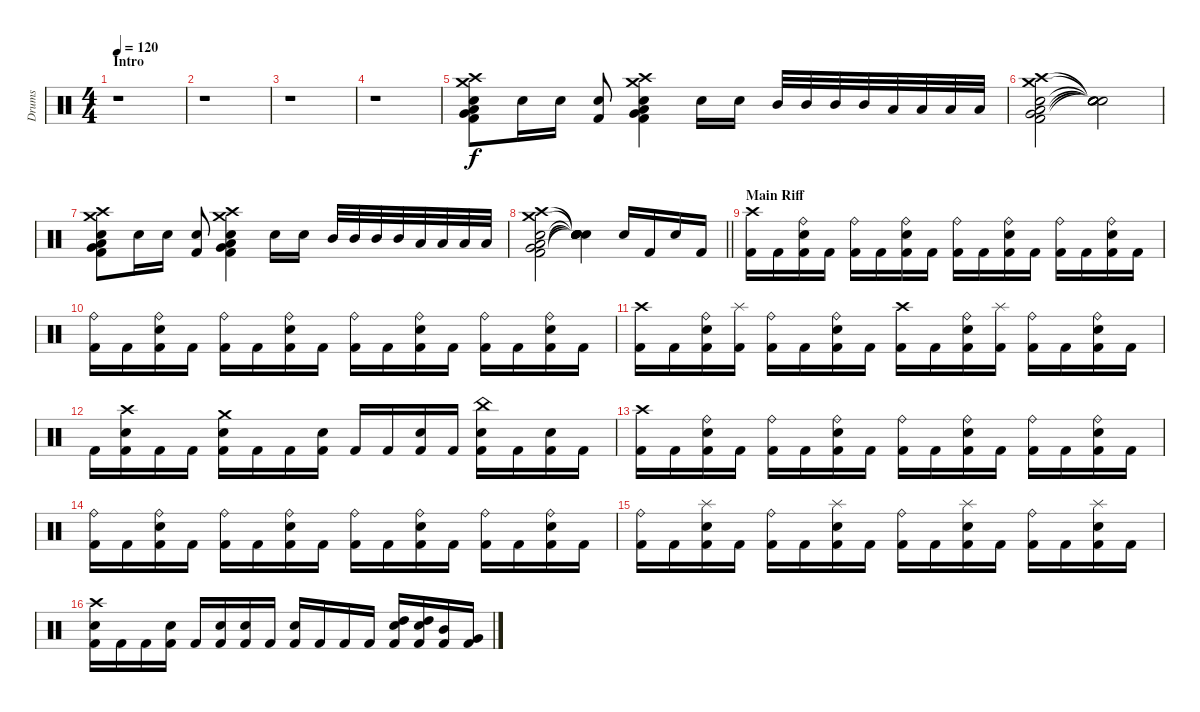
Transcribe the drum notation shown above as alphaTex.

\track ("Drums" "Drums") {instrument percussion}
\staff {score}
\articulation defaults
\ts (4 4)
\section ("" "Intro")
\tempo 120
\clef neutral
\ks c
r.1{dy f} |
r.1 |
r.1 |
r.1 |
("Crash high (hit)" "Crash medium (hit)" "Kick (hit) 2" "Low Floor Tom (hit)" "Very Low Tom (hit)" "Snare (hit) 2").8 "Snare (hit) 2".16 "Snare (hit) 2".16 ("Snare (hit) 2" "Kick (hit) 2").8 ("Crash high (hit)" "Crash medium (hit)" "Kick (hit) 2" "Low Floor Tom (hit)" "Very Low Tom (hit)" "Snare (hit) 2").4 "Snare (hit) 2".16 "Snare (hit) 2".16 "Mid Tom (hit)".32 "Mid Tom (hit)".32 "Mid Tom (hit)".32 "Mid Tom (hit)".32 "Low Tom (hit)".32 "Low Tom (hit)".32 "Low Tom (hit)".32 "Low Tom (hit)".32 |
("Crash high (hit)" "Crash medium (hit)" "Kick (hit) 2" "Low Floor Tom (hit)" "Very Low Tom (hit)" "Snare (hit) 2").2 ("Snare (hit)"{t} "Snare (hit)"{t} "Snare (hit)"{t} "Snare (hit)"{t} "Snare (hit)"{t} "Snare (hit)"{t}).2 |
("Crash high (hit)" "Crash medium (hit)" "Kick (hit) 2" "Low Floor Tom (hit)" "Very Low Tom (hit)" "Snare (hit) 2").8 "Snare (hit) 2".16 "Snare (hit) 2".16 ("Snare (hit) 2" "Kick (hit) 2").8 ("Crash high (hit)" "Crash medium (hit)" "Kick (hit) 2" "Low Floor Tom (hit)" "Very Low Tom (hit)" "Snare (hit) 2").4 "Snare (hit) 2".16 "Snare (hit) 2".16 "Mid Tom (hit)".32 "Mid Tom (hit)".32 "Mid Tom (hit)".32 "Mid Tom (hit)".32 "Low Tom (hit)".32 "Low Tom (hit)".32 "Low Tom (hit)".32 "Low Tom (hit)".32 |
\barLineRight lightlight
("Crash high (hit)" "Crash medium (hit)" "Kick (hit) 2" "Low Floor Tom (hit)" "Very Low Tom (hit)" "Snare (hit) 2").2 ("Snare (hit)"{t} "Snare (hit)"{t} "Snare (hit)"{t} "Snare (hit)"{t} "Snare (hit)"{t} "Snare (hit)"{t}).4 "Snare (hit) 2".16 "Kick (hit) 2".16 "Snare (hit) 2".16 "Kick (hit) 2".16 |
\section ("" "Main Riff")
("Crash high (hit)" "Kick (hit) 2").16 "Kick (hit) 2".16 ("Ride (bell)" "Snare (hit) 2" "Kick (hit) 2").16 "Kick (hit) 2".16 ("Ride (bell)" "Kick (hit) 2").16 "Kick (hit) 2".16 ("Ride (bell)" "Snare (hit) 2" "Kick (hit) 2").16 "Kick (hit) 2".16 ("Ride (bell)" "Kick (hit) 2").16 "Kick (hit) 2".16 ("Ride (bell)" "Snare (hit) 2" "Kick (hit) 2").16 "Kick (hit) 2".16 ("Ride (bell)" "Kick (hit) 2").16 "Kick (hit) 2".16 ("Ride (bell)" "Snare (hit) 2" "Kick (hit) 2").16 "Kick (hit) 2".16 |
("Ride (bell)" "Kick (hit) 2").16 "Kick (hit) 2".16 ("Ride (bell)" "Snare (hit) 2" "Kick (hit) 2").16 "Kick (hit) 2".16 ("Ride (bell)" "Kick (hit) 2").16 "Kick (hit) 2".16 ("Ride (bell)" "Snare (hit) 2" "Kick (hit) 2").16 "Kick (hit) 2".16 ("Ride (bell)" "Kick (hit) 2").16 "Kick (hit) 2".16 ("Ride (bell)" "Snare (hit) 2" "Kick (hit) 2").16 "Kick (hit) 2".16 ("Ride (bell)" "Kick (hit) 2").16 "Kick (hit) 2".16 ("Ride (bell)" "Snare (hit) 2" "Kick (hit) 2").16 "Kick (hit) 2".16 |
("Crash high (hit)" "Kick (hit) 2").16 "Kick (hit) 2".16 ("Ride (bell)" "Snare (hit) 2" "Kick (hit) 2").16 ("Splash (hit)" "Kick (hit) 2").16 ("Ride (bell)" "Kick (hit) 2").16 "Kick (hit) 2".16 ("Ride (bell)" "Snare (hit) 2" "Kick (hit) 2").16 "Kick (hit) 2".16 ("Crash high (hit)" "Kick (hit) 2").16 "Kick (hit) 2".16 ("Ride (bell)" "Snare (hit) 2" "Kick (hit) 2").16 ("Splash (hit)" "Kick (hit) 2").16 ("Ride (bell)" "Kick (hit) 2").16 "Kick (hit) 2".16 ("Ride (bell)" "Snare (hit) 2" "Kick (hit) 2").16 "Kick (hit) 2".16 |
"Kick (hit) 2".16 ("Crash high (hit)" "Snare (hit) 2" "Kick (hit) 2").16 "Kick (hit) 2".16 "Kick (hit) 2".16 ("Crash medium (hit)" "Snare (hit) 2" "Kick (hit) 2").16 "Kick (hit) 2".16 "Kick (hit) 2".16 ("Snare (hit) 2" "Kick (hit) 2").16 "Kick (hit) 2".16 "Kick (hit) 2".16 ("Snare (hit) 2" "Kick (hit) 2").16 "Kick (hit) 2".16 ("China (hit)" "Snare (hit) 2" "Kick (hit) 2").16 "Kick (hit) 2".16 ("Snare (hit) 2" "Kick (hit) 2").16 "Kick (hit) 2".16 |
("Crash high (hit)" "Kick (hit) 2").16 "Kick (hit) 2".16 ("Ride (bell)" "Snare (hit) 2" "Kick (hit) 2").16 "Kick (hit) 2".16 ("Ride (bell)" "Kick (hit) 2").16 "Kick (hit) 2".16 ("Ride (bell)" "Snare (hit) 2" "Kick (hit) 2").16 "Kick (hit) 2".16 ("Ride (bell)" "Kick (hit) 2").16 "Kick (hit) 2".16 ("Ride (bell)" "Snare (hit) 2" "Kick (hit) 2").16 "Kick (hit) 2".16 ("Ride (bell)" "Kick (hit) 2").16 "Kick (hit) 2".16 ("Ride (bell)" "Snare (hit) 2" "Kick (hit) 2").16 "Kick (hit) 2".16 |
("Ride (bell)" "Kick (hit) 2").16 "Kick (hit) 2".16 ("Ride (bell)" "Snare (hit) 2" "Kick (hit) 2").16 "Kick (hit) 2".16 ("Ride (bell)" "Kick (hit) 2").16 "Kick (hit) 2".16 ("Ride (bell)" "Snare (hit) 2" "Kick (hit) 2").16 "Kick (hit) 2".16 ("Ride (bell)" "Kick (hit) 2").16 "Kick (hit) 2".16 ("Ride (bell)" "Snare (hit) 2" "Kick (hit) 2").16 "Kick (hit) 2".16 ("Ride (bell)" "Kick (hit) 2").16 "Kick (hit) 2".16 ("Ride (bell)" "Snare (hit) 2" "Kick (hit) 2").16 "Kick (hit) 2".16 |
("Ride (bell)" "Kick (hit) 2").16 "Kick (hit) 2".16 ("Splash (hit)" "Snare (hit) 2" "Kick (hit) 2").16 "Kick (hit) 2".16 ("Ride (bell)" "Kick (hit) 2").16 "Kick (hit) 2".16 ("Splash (hit)" "Snare (hit) 2" "Kick (hit) 2").16 "Kick (hit) 2".16 ("Ride (bell)" "Kick (hit) 2").16 "Kick (hit) 2".16 ("Splash (hit)" "Snare (hit) 2" "Kick (hit) 2").16 "Kick (hit) 2".16 ("Ride (bell)" "Kick (hit) 2").16 "Kick (hit) 2".16 ("Splash (hit)" "Snare (hit) 2" "Kick (hit) 2").16 "Kick (hit) 2".16 |
("Crash high (hit)" "Snare (hit) 2" "Kick (hit) 2").16 "Kick (hit) 2".16 "Kick (hit) 2".16 ("Snare (hit) 2" "Kick (hit) 2").16 "Kick (hit) 2".16 ("Snare (hit) 2" "Kick (hit) 2").16 ("Snare (hit) 2" "Kick (hit) 2").16 "Kick (hit) 2".16 ("Snare (hit) 2" "Kick (hit) 2").16 "Kick (hit) 2".16 "Kick (hit) 2".16 "Kick (hit) 2".16 ("Snare (hit) 2" "High Tom (hit)" "Kick (hit) 2").16 ("Snare (hit) 2" "High Tom (hit)" "Kick (hit) 2").16 ("Mid Tom (hit)" "Kick (hit) 2").16 ("Very Low Tom (hit)" "Kick (hit) 2").16
